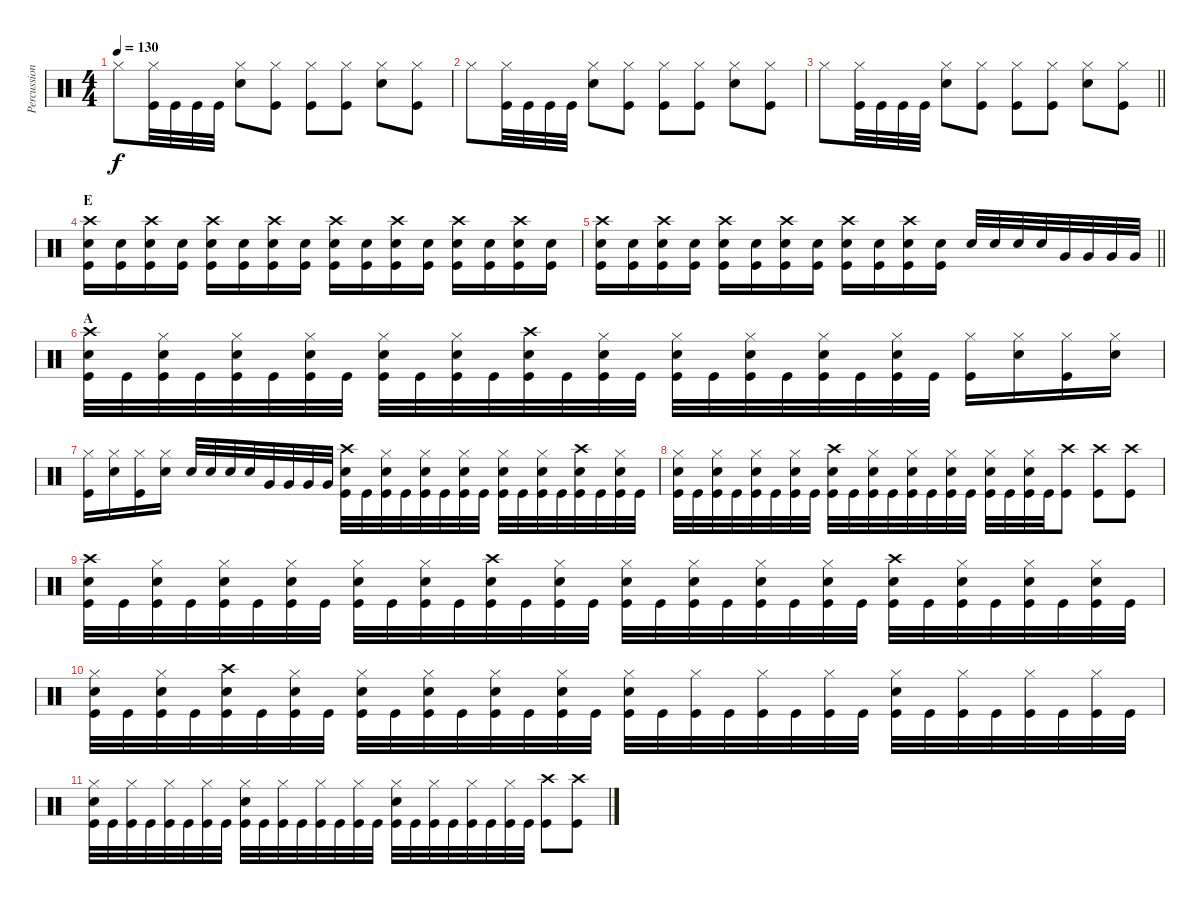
\track ("Percussion" "Percussion") {instrument percussion}
\staff {score}
\articulation defaults
\ts (4 4)
\tempo 130
\clef neutral
\ks c "Hi-Hat (closed)".8{dy f}
("Kick (hit)" "Hi-Hat (closed)").32 "Kick (hit)".32 "Kick (hit)".32 "Kick (hit)".32 ("Snare (hit) 2" "Hi-Hat (closed)").8 ("Kick (hit)" "Hi-Hat (closed)").8 ("Kick (hit)" "Hi-Hat (closed)").8 ("Kick (hit)" "Hi-Hat (closed)").8 ("Snare (hit) 2" "Hi-Hat (closed)").8 ("Kick (hit)" "Hi-Hat (closed)").8 |
"Hi-Hat (closed)".8 ("Kick (hit)" "Hi-Hat (closed)").32 "Kick (hit)".32 "Kick (hit)".32 "Kick (hit)".32 ("Snare (hit) 2" "Hi-Hat (closed)").8 ("Kick (hit)" "Hi-Hat (closed)").8 ("Kick (hit)" "Hi-Hat (closed)").8 ("Kick (hit)" "Hi-Hat (closed)").8 ("Snare (hit) 2" "Hi-Hat (closed)").8 ("Kick (hit)" "Hi-Hat (closed)").8 |
\barLineRight lightlight "Hi-Hat (closed)".8
("Kick (hit)" "Hi-Hat (closed)").32 "Kick (hit)".32 "Kick (hit)".32 "Kick (hit)".32 ("Snare (hit) 2" "Hi-Hat (closed)").8 ("Kick (hit)" "Hi-Hat (closed)").8 ("Kick (hit)" "Hi-Hat (closed)").8 ("Kick (hit)" "Hi-Hat (closed)").8 ("Snare (hit) 2" "Hi-Hat (closed)").8 ("Kick (hit)" "Hi-Hat (closed)").8 |
\section ("" "E")
("Kick (hit)" "Crash high (hit)" "Snare (hit) 2").16 ("Kick (hit)" "Snare (hit) 2").16 ("Kick (hit)" "Crash high (hit)" "Snare (hit) 2").16 ("Kick (hit)" "Snare (hit) 2").16 ("Kick (hit)" "Crash high (hit)" "Snare (hit) 2").16 ("Kick (hit)" "Snare (hit) 2").16 ("Kick (hit)" "Crash high (hit)" "Snare (hit) 2").16 ("Kick (hit)" "Snare (hit) 2").16 ("Kick (hit)" "Crash high (hit)" "Snare (hit) 2").16 ("Kick (hit)" "Snare (hit) 2").16 ("Kick (hit)" "Crash high (hit)" "Snare (hit) 2").16 ("Kick (hit)" "Snare (hit) 2").16 ("Kick (hit)" "Crash high (hit)" "Snare (hit) 2").16 ("Kick (hit)" "Snare (hit) 2").16 ("Kick (hit)" "Crash high (hit)" "Snare (hit) 2").16 ("Kick (hit)" "Snare (hit) 2").16 |
\barLineRight lightlight
("Kick (hit)" "Crash high (hit)" "Snare (hit) 2").16 ("Kick (hit)" "Snare (hit) 2").16 ("Kick (hit)" "Crash high (hit)" "Snare (hit) 2").16 ("Kick (hit)" "Snare (hit) 2").16 ("Kick (hit)" "Crash high (hit)" "Snare (hit) 2").16 ("Kick (hit)" "Snare (hit) 2").16 ("Kick (hit)" "Crash high (hit)" "Snare (hit) 2").16 ("Kick (hit)" "Snare (hit) 2").16 ("Kick (hit)" "Crash high (hit)" "Snare (hit) 2").16 ("Kick (hit)" "Snare (hit) 2").16 ("Kick (hit)" "Crash high (hit)" "Snare (hit) 2").16 ("Kick (hit)" "Snare (hit) 2").16 "Snare (hit) 2".32 "Snare (hit) 2".32 "Snare (hit) 2".32 "Snare (hit) 2".32 "Very Low Tom (hit)".32 "Very Low Tom (hit)".32 "Very Low Tom (hit)".32 "Very Low Tom (hit)".32 |
\section ("" "A")
("Kick (hit)" "Crash high (hit)" "Snare (hit) 2").32 "Kick (hit)".32 ("Kick (hit)" "Hi-Hat (closed)" "Snare (hit) 2").32 "Kick (hit)".32 ("Kick (hit)" "Hi-Hat (closed)" "Snare (hit) 2").32 "Kick (hit)".32 ("Kick (hit)" "Hi-Hat (closed)" "Snare (hit) 2").32 "Kick (hit)".32 ("Kick (hit)" "Hi-Hat (closed)" "Snare (hit) 2").32 "Kick (hit)".32 ("Kick (hit)" "Hi-Hat (closed)" "Snare (hit) 2").32 "Kick (hit)".32 ("Kick (hit)" "Crash high (hit)" "Snare (hit) 2").32 "Kick (hit)".32 ("Kick (hit)" "Hi-Hat (closed)" "Snare (hit) 2").32 "Kick (hit)".32 ("Kick (hit)" "Hi-Hat (closed)" "Snare (hit) 2").32 "Kick (hit)".32 ("Kick (hit)" "Hi-Hat (closed)" "Snare (hit) 2").32 "Kick (hit)".32 ("Kick (hit)" "Hi-Hat (closed)" "Snare (hit) 2").32 "Kick (hit)".32 ("Kick (hit)" "Hi-Hat (closed)" "Snare (hit) 2").32 "Kick (hit)".32 ("Kick (hit)" "Hi-Hat (closed)").16 ("Snare (hit) 2" "Hi-Hat (closed)").16 ("Kick (hit)" "Hi-Hat (closed)").16 ("Snare (hit) 2" "Hi-Hat (closed)").16 |
("Kick (hit)" "Hi-Hat (closed)").16 ("Snare (hit) 2" "Hi-Hat (closed)").16 ("Kick (hit)" "Hi-Hat (closed)").16 ("Snare (hit) 2" "Hi-Hat (closed)").16 "Snare (hit) 2".32 "Snare (hit) 2".32 "Snare (hit) 2".32 "Snare (hit) 2".32 "Very Low Tom (hit)".32 "Very Low Tom (hit)".32 "Very Low Tom (hit)".32 "Very Low Tom (hit)".32 ("Kick (hit)" "Crash high (hit)" "Snare (hit) 2").32 "Kick (hit)".32 ("Kick (hit)" "Hi-Hat (closed)" "Snare (hit) 2").32 "Kick (hit)".32 ("Kick (hit)" "Hi-Hat (closed)" "Snare (hit) 2").32 "Kick (hit)".32 ("Kick (hit)" "Hi-Hat (closed)" "Snare (hit) 2").32 "Kick (hit)".32 ("Kick (hit)" "Hi-Hat (closed)" "Snare (hit) 2").32 "Kick (hit)".32 ("Kick (hit)" "Hi-Hat (closed)" "Snare (hit) 2").32 "Kick (hit)".32 ("Kick (hit)" "Crash high (hit)" "Snare (hit) 2").32 "Kick (hit)".32 ("Kick (hit)" "Hi-Hat (closed)" "Snare (hit) 2").32 "Kick (hit)".32 |
("Kick (hit)" "Hi-Hat (closed)" "Snare (hit) 2").32 "Kick (hit)".32 ("Kick (hit)" "Hi-Hat (closed)" "Snare (hit) 2").32 "Kick (hit)".32 ("Kick (hit)" "Hi-Hat (closed)" "Snare (hit) 2").32 "Kick (hit)".32 ("Kick (hit)" "Hi-Hat (closed)" "Snare (hit) 2").32 "Kick (hit)".32 ("Kick (hit)" "Crash high (hit)" "Snare (hit) 2").32 "Kick (hit)".32 ("Kick (hit)" "Hi-Hat (closed)" "Snare (hit) 2").32 "Kick (hit)".32 ("Kick (hit)" "Hi-Hat (closed)" "Snare (hit) 2").32 "Kick (hit)".32 ("Kick (hit)" "Hi-Hat (closed)" "Snare (hit) 2").32 "Kick (hit)".32 ("Kick (hit)" "Hi-Hat (closed)" "Snare (hit) 2").32 "Kick (hit)".32 ("Kick (hit)" "Hi-Hat (closed)" "Snare (hit) 2").32 "Kick (hit)".32 ("Kick (hit)" "Crash high (hit)").8 ("Kick (hit)" "Crash high (hit)").8 ("Kick (hit)" "Crash high (hit)").8 |
("Kick (hit)" "Crash high (hit)" "Snare (hit) 2").32 "Kick (hit)".32 ("Kick (hit)" "Hi-Hat (closed)" "Snare (hit) 2").32 "Kick (hit)".32 ("Kick (hit)" "Hi-Hat (closed)" "Snare (hit) 2").32 "Kick (hit)".32 ("Kick (hit)" "Hi-Hat (closed)" "Snare (hit) 2").32 "Kick (hit)".32 ("Kick (hit)" "Hi-Hat (closed)" "Snare (hit) 2").32 "Kick (hit)".32 ("Kick (hit)" "Hi-Hat (closed)" "Snare (hit) 2").32 "Kick (hit)".32 ("Kick (hit)" "Crash high (hit)" "Snare (hit) 2").32 "Kick (hit)".32 ("Kick (hit)" "Hi-Hat (closed)" "Snare (hit) 2").32 "Kick (hit)".32 ("Kick (hit)" "Hi-Hat (closed)" "Snare (hit) 2").32 "Kick (hit)".32 ("Kick (hit)" "Hi-Hat (closed)" "Snare (hit) 2").32 "Kick (hit)".32 ("Kick (hit)" "Hi-Hat (closed)" "Snare (hit) 2").32 "Kick (hit)".32 ("Kick (hit)" "Hi-Hat (closed)" "Snare (hit) 2").32 "Kick (hit)".32 ("Kick (hit)" "Crash high (hit)" "Snare (hit) 2").32 "Kick (hit)".32 ("Kick (hit)" "Hi-Hat (closed)" "Snare (hit) 2").32 "Kick (hit)".32 ("Kick (hit)" "Hi-Hat (closed)" "Snare (hit) 2").32 "Kick (hit)".32 ("Kick (hit)" "Hi-Hat (closed)" "Snare (hit) 2").32 "Kick (hit)".32 |
("Kick (hit)" "Hi-Hat (closed)" "Snare (hit) 2").32 "Kick (hit)".32 ("Kick (hit)" "Hi-Hat (closed)" "Snare (hit) 2").32 "Kick (hit)".32 ("Kick (hit)" "Crash high (hit)" "Snare (hit) 2").32 "Kick (hit)".32 ("Kick (hit)" "Hi-Hat (closed)" "Snare (hit) 2").32 "Kick (hit)".32 ("Kick (hit)" "Hi-Hat (closed)" "Snare (hit) 2").32 "Kick (hit)".32 ("Kick (hit)" "Hi-Hat (closed)" "Snare (hit) 2").32 "Kick (hit)".32 ("Kick (hit)" "Hi-Hat (closed)" "Snare (hit) 2").32 "Kick (hit)".32 ("Kick (hit)" "Hi-Hat (closed)" "Snare (hit) 2").32 "Kick (hit)".32 ("Kick (hit)" "Snare (hit) 2" "Hi-Hat (closed)").32 "Kick (hit)".32 ("Kick (hit)" "Hi-Hat (closed)").32 "Kick (hit)".32 ("Kick (hit)" "Hi-Hat (closed)").32 "Kick (hit)".32 ("Kick (hit)" "Hi-Hat (closed)").32 "Kick (hit)".32 ("Kick (hit)" "Snare (hit) 2" "Hi-Hat (closed)").32 "Kick (hit)".32 ("Kick (hit)" "Hi-Hat (closed)").32 "Kick (hit)".32 ("Kick (hit)" "Hi-Hat (closed)").32 "Kick (hit)".32 ("Kick (hit)" "Hi-Hat (closed)").32 "Kick (hit)".32 |
("Kick (hit)" "Snare (hit) 2" "Hi-Hat (closed)").32 "Kick (hit)".32 ("Kick (hit)" "Hi-Hat (closed)").32 "Kick (hit)".32 ("Kick (hit)" "Hi-Hat (closed)").32 "Kick (hit)".32 ("Kick (hit)" "Hi-Hat (closed)").32 "Kick (hit)".32 ("Kick (hit)" "Snare (hit) 2" "Hi-Hat (closed)").32 "Kick (hit)".32 ("Kick (hit)" "Hi-Hat (closed)").32 "Kick (hit)".32 ("Kick (hit)" "Hi-Hat (closed)").32 "Kick (hit)".32 ("Kick (hit)" "Hi-Hat (closed)").32 "Kick (hit)".32 ("Kick (hit)" "Snare (hit) 2" "Hi-Hat (closed)").32 "Kick (hit)".32 ("Kick (hit)" "Hi-Hat (closed)").32 "Kick (hit)".32 ("Kick (hit)" "Hi-Hat (closed)").32 "Kick (hit)".32 ("Kick (hit)" "Hi-Hat (closed)").32 "Kick (hit)".32 ("Kick (hit)" "Crash high (hit)").8 ("Kick (hit)" "Crash high (hit)").8
